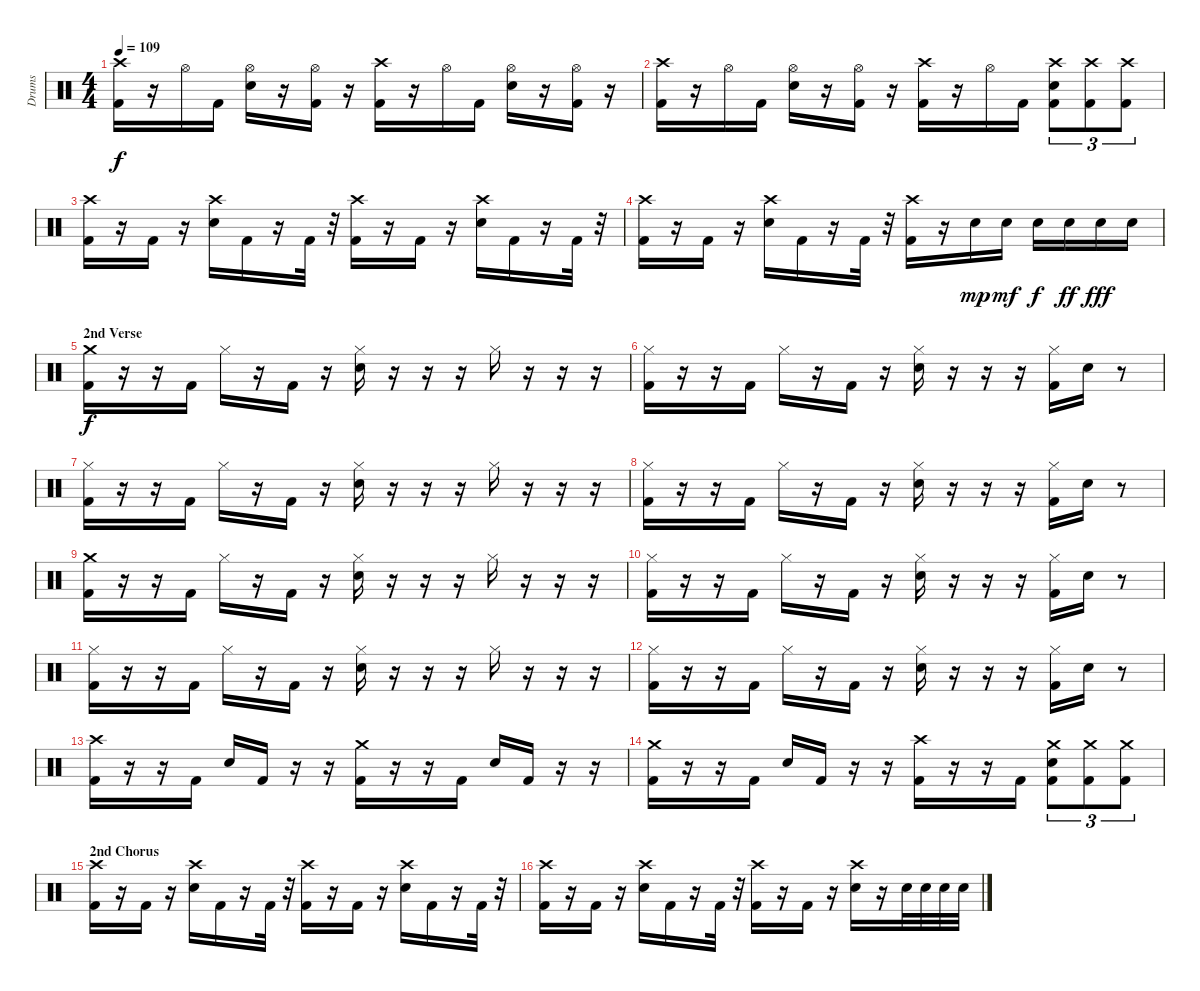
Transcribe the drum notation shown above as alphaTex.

\track ("Drums" "Drums") {instrument percussion}
\staff {score}
\articulation defaults
\ts (4 4)
\tempo 109
\clef neutral
\ks c
("Crash high (hit)" "Kick (hit) 2").16{dy f} r.16 "Hi-Hat (open)".16 "Kick (hit) 2".16 ("Hi-Hat (open)" "Snare (hit) 2").16 r.16 ("Hi-Hat (open)" "Kick (hit) 2").16 r.16 ("Crash high (hit)" "Kick (hit) 2").16 r.16 "Hi-Hat (open)".16 "Kick (hit) 2".16 ("Hi-Hat (open)" "Snare (hit) 2").16 r.16 ("Hi-Hat (open)" "Kick (hit) 2").16 r.16 |
("Crash high (hit)" "Kick (hit) 2").16 r.16 "Hi-Hat (open)".16 "Kick (hit) 2".16 ("Hi-Hat (open)" "Snare (hit) 2").16 r.16 ("Hi-Hat (open)" "Kick (hit) 2").16 r.16 ("Crash high (hit)" "Kick (hit) 2").16 r.16 "Hi-Hat (open)".16 "Kick (hit) 2".16 ("Crash high (hit)" "Snare (hit) 2" "Kick (hit) 2").8{tu (3 2)} ("Crash high (hit)" "Kick (hit) 2").8{tu (3 2)} ("Crash high (hit)" "Kick (hit) 2").8{tu (3 2)} |
("Crash high (hit)" "Kick (hit) 2").16 r.16 "Kick (hit) 2".16 r.16 ("Crash high (hit)" "Snare (hit) 2").16 "Kick (hit) 2".16 r.16 "Kick (hit) 2".32 r.32 ("Crash high (hit)" "Kick (hit) 2").16 r.16 "Kick (hit) 2".16 r.16 ("Crash high (hit)" "Snare (hit) 2").16 "Kick (hit) 2".16 r.16 "Kick (hit) 2".32 r.32 |
("Crash high (hit)" "Kick (hit) 2").16 r.16 "Kick (hit) 2".16 r.16 ("Crash high (hit)" "Snare (hit) 2").16 "Kick (hit) 2".16 r.16 "Kick (hit) 2".32 r.32 ("Crash high (hit)" "Kick (hit) 2").16 r.16 "Snare (hit) 2".16{dy mp} "Snare (hit) 2".16{dy mf} "Snare (hit) 2".16{dy f} "Snare (hit) 2".16{dy ff} "Snare (hit) 2".16{dy fff} "Snare (hit) 2".16 |
\section ("" "2nd Verse")
("Crash medium (hit)" "Kick (hit) 2").16{dy f} r.16 r.16 "Kick (hit) 2".16 "Hi-Hat (closed)".16 r.16 "Kick (hit) 2".16 r.16 ("Hi-Hat (closed)" "Snare (hit) 2").16 r.16 r.16 r.16 "Hi-Hat (closed)".16 r.16 r.16 r.16 |
("Hi-Hat (closed)" "Kick (hit) 2").16 r.16 r.16 "Kick (hit) 2".16 "Hi-Hat (closed)".16 r.16 "Kick (hit) 2".16 r.16 ("Hi-Hat (closed)" "Snare (hit) 2").16 r.16 r.16 r.16 ("Hi-Hat (closed)" "Kick (hit) 2").16 "Snare (hit) 2"{tr (38 32)}.16 r.8 |
("Hi-Hat (closed)" "Kick (hit) 2").16 r.16 r.16 "Kick (hit) 2".16 "Hi-Hat (closed)".16 r.16 "Kick (hit) 2".16 r.16 ("Hi-Hat (closed)" "Snare (hit) 2").16 r.16 r.16 r.16 "Hi-Hat (closed)".16 r.16 r.16 r.16 |
("Hi-Hat (closed)" "Kick (hit) 2").16 r.16 r.16 "Kick (hit) 2".16 "Hi-Hat (closed)".16 r.16 "Kick (hit) 2".16 r.16 ("Hi-Hat (closed)" "Snare (hit) 2").16 r.16 r.16 r.16 ("Hi-Hat (closed)" "Kick (hit) 2").16 "Snare (hit) 2"{tr (38 32)}.16 r.8 |
("Crash medium (hit)" "Kick (hit) 2").16 r.16 r.16 "Kick (hit) 2".16 "Hi-Hat (closed)".16 r.16 "Kick (hit) 2".16 r.16 ("Hi-Hat (closed)" "Snare (hit) 2").16 r.16 r.16 r.16 "Hi-Hat (closed)".16 r.16 r.16 r.16 |
("Hi-Hat (closed)" "Kick (hit) 2").16 r.16 r.16 "Kick (hit) 2".16 "Hi-Hat (closed)".16 r.16 "Kick (hit) 2".16 r.16 ("Hi-Hat (closed)" "Snare (hit) 2").16 r.16 r.16 r.16 ("Hi-Hat (closed)" "Kick (hit) 2").16 "Snare (hit) 2"{tr (38 32)}.16 r.8 |
("Hi-Hat (closed)" "Kick (hit) 2").16 r.16 r.16 "Kick (hit) 2".16 "Hi-Hat (closed)".16 r.16 "Kick (hit) 2".16 r.16 ("Hi-Hat (closed)" "Snare (hit) 2").16 r.16 r.16 r.16 "Hi-Hat (closed)".16 r.16 r.16 r.16 |
("Hi-Hat (closed)" "Kick (hit) 2").16 r.16 r.16 "Kick (hit) 2".16 "Hi-Hat (closed)".16 r.16 "Kick (hit) 2".16 r.16 ("Hi-Hat (closed)" "Snare (hit) 2").16 r.16 r.16 r.16 ("Hi-Hat (closed)" "Kick (hit) 2").16 "Snare (hit) 2"{tr (38 32)}.16 r.8 |
("Crash high (hit)" "Kick (hit) 2").16 r.16 r.16 "Kick (hit) 2".16 "Snare (hit) 2"{tr (38 32)}.16 "Kick (hit) 2".16 r.16 r.16 ("Crash medium (hit)" "Kick (hit) 2").16 r.16 r.16 "Kick (hit) 2".16 "Snare (hit) 2"{tr (38 32)}.16 "Kick (hit) 2".16 r.16 r.16 |
("Crash medium (hit)" "Kick (hit) 2").16 r.16 r.16 "Kick (hit) 2".16 "Snare (hit) 2"{tr (38 32)}.16 "Kick (hit) 2".16 r.16 r.16 ("Crash high (hit)" "Kick (hit) 2").16 r.16 r.16 "Kick (hit) 2".16 ("Crash medium (hit)" "Snare (hit) 2" "Kick (hit) 2").8{tu (3 2)} ("Crash medium (hit)" "Kick (hit) 2").8{tu (3 2)} ("Crash medium (hit)" "Kick (hit) 2").8{tu (3 2)} |
\section ("" "2nd Chorus ")
("Crash high (hit)" "Kick (hit) 2").16 r.16 "Kick (hit) 2".16 r.16 ("Crash high (hit)" "Snare (hit) 2").16 "Kick (hit) 2".16 r.16 "Kick (hit) 2".32 r.32 ("Crash high (hit)" "Kick (hit) 2").16 r.16 "Kick (hit) 2".16 r.16 ("Crash high (hit)" "Snare (hit) 2").16 "Kick (hit) 2".16 r.16 "Kick (hit) 2".32 r.32 |
("Crash high (hit)" "Kick (hit) 2").16 r.16 "Kick (hit) 2".16 r.16 ("Crash high (hit)" "Snare (hit) 2").16 "Kick (hit) 2".16 r.16 "Kick (hit) 2".32 r.32 ("Crash high (hit)" "Kick (hit) 2").16 r.16 "Kick (hit) 2".16 r.16 ("Crash high (hit)" "Snare (hit) 2").16 r.16 "Snare (hit) 2".32 "Snare (hit) 2".32 "Snare (hit) 2".32 "Snare (hit) 2".32
